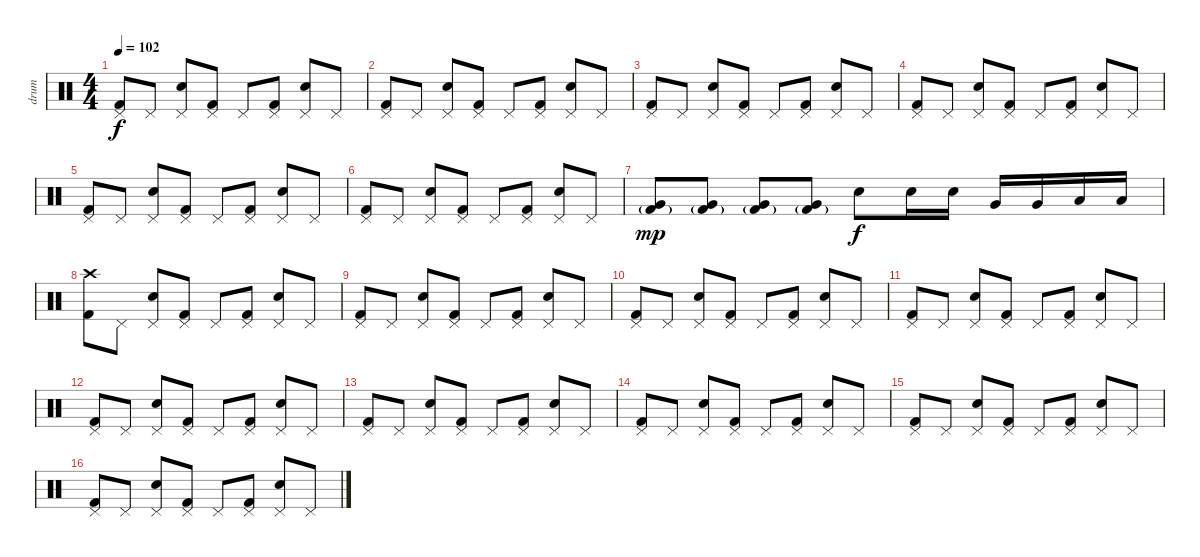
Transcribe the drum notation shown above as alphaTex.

\track ("drum " "drum ") {instrument percussion}
\staff {score}
\articulation defaults
\ts (4 4)
\tempo 102
\clef neutral
\ks c
("Pedal Hi-Hat (hit)" "Kick (hit) 2").8{dy f} "Pedal Hi-Hat (hit)".8 ("Pedal Hi-Hat (hit)" "Snare (hit) 2").8 ("Pedal Hi-Hat (hit)" "Kick (hit) 2").8 "Pedal Hi-Hat (hit)".8 ("Pedal Hi-Hat (hit)" "Kick (hit) 2").8 ("Pedal Hi-Hat (hit)" "Snare (hit) 2").8 "Pedal Hi-Hat (hit)".8 |
("Pedal Hi-Hat (hit)" "Kick (hit) 2").8 "Pedal Hi-Hat (hit)".8 ("Pedal Hi-Hat (hit)" "Snare (hit) 2").8 ("Pedal Hi-Hat (hit)" "Kick (hit) 2").8 "Pedal Hi-Hat (hit)".8 ("Pedal Hi-Hat (hit)" "Kick (hit) 2").8 ("Pedal Hi-Hat (hit)" "Snare (hit) 2").8 "Pedal Hi-Hat (hit)".8 |
("Pedal Hi-Hat (hit)" "Kick (hit) 2").8 "Pedal Hi-Hat (hit)".8 ("Pedal Hi-Hat (hit)" "Snare (hit) 2").8 ("Pedal Hi-Hat (hit)" "Kick (hit) 2").8 "Pedal Hi-Hat (hit)".8 ("Pedal Hi-Hat (hit)" "Kick (hit) 2").8 ("Pedal Hi-Hat (hit)" "Snare (hit) 2").8 "Pedal Hi-Hat (hit)".8 |
("Pedal Hi-Hat (hit)" "Kick (hit) 2").8 "Pedal Hi-Hat (hit)".8 ("Pedal Hi-Hat (hit)" "Snare (hit) 2").8 ("Pedal Hi-Hat (hit)" "Kick (hit) 2").8 "Pedal Hi-Hat (hit)".8 ("Pedal Hi-Hat (hit)" "Kick (hit) 2").8 ("Pedal Hi-Hat (hit)" "Snare (hit) 2").8 "Pedal Hi-Hat (hit)".8 |
("Pedal Hi-Hat (hit)" "Kick (hit) 2").8 "Pedal Hi-Hat (hit)".8 ("Pedal Hi-Hat (hit)" "Snare (hit) 2").8 ("Pedal Hi-Hat (hit)" "Kick (hit) 2").8 "Pedal Hi-Hat (hit)".8 ("Pedal Hi-Hat (hit)" "Kick (hit) 2").8 ("Pedal Hi-Hat (hit)" "Snare (hit) 2").8 "Pedal Hi-Hat (hit)".8 |
("Pedal Hi-Hat (hit)" "Kick (hit) 2").8 "Pedal Hi-Hat (hit)".8 ("Pedal Hi-Hat (hit)" "Snare (hit) 2").8 ("Pedal Hi-Hat (hit)" "Kick (hit) 2").8 "Pedal Hi-Hat (hit)".8 ("Pedal Hi-Hat (hit)" "Kick (hit) 2").8 ("Pedal Hi-Hat (hit)" "Snare (hit) 2").8 "Pedal Hi-Hat (hit)".8 |
("Very Low Tom (hit)" "Kick (hit) 2"{g}).8{dy mp volume 8} ("Very Low Tom (hit)" "Kick (hit) 2"{g}).8{volume 10} ("Very Low Tom (hit)" "Kick (hit) 2"{g}).8{volume 12} ("Very Low Tom (hit)" "Kick (hit) 2"{g}).8{volume 14} "Snare (hit) 2".8{dy f} "Snare (hit) 2".16 "Snare (hit) 2".16 "Very Low Tom (hit)".16 "Very Low Tom (hit)".16 "Low Floor Tom (hit)".16 "Low Floor Tom (hit)".16 |
("Crash high (hit)" "Kick (hit) 2").8 "Pedal Hi-Hat (hit)".8 ("Pedal Hi-Hat (hit)" "Snare (hit) 2").8 ("Pedal Hi-Hat (hit)" "Kick (hit) 2").8 "Pedal Hi-Hat (hit)".8 ("Pedal Hi-Hat (hit)" "Kick (hit) 2").8 ("Pedal Hi-Hat (hit)" "Snare (hit) 2").8 "Pedal Hi-Hat (hit)".8 |
("Pedal Hi-Hat (hit)" "Kick (hit) 2").8 "Pedal Hi-Hat (hit)".8 ("Pedal Hi-Hat (hit)" "Snare (hit) 2").8 ("Pedal Hi-Hat (hit)" "Kick (hit) 2").8 "Pedal Hi-Hat (hit)".8 ("Pedal Hi-Hat (hit)" "Kick (hit) 2").8 ("Pedal Hi-Hat (hit)" "Snare (hit) 2").8 "Pedal Hi-Hat (hit)".8 |
("Pedal Hi-Hat (hit)" "Kick (hit) 2").8 "Pedal Hi-Hat (hit)".8 ("Pedal Hi-Hat (hit)" "Snare (hit) 2").8 ("Pedal Hi-Hat (hit)" "Kick (hit) 2").8 "Pedal Hi-Hat (hit)".8 ("Pedal Hi-Hat (hit)" "Kick (hit) 2").8 ("Pedal Hi-Hat (hit)" "Snare (hit) 2").8 "Pedal Hi-Hat (hit)".8 |
("Pedal Hi-Hat (hit)" "Kick (hit) 2").8 "Pedal Hi-Hat (hit)".8 ("Pedal Hi-Hat (hit)" "Snare (hit) 2").8 ("Pedal Hi-Hat (hit)" "Kick (hit) 2").8 "Pedal Hi-Hat (hit)".8 ("Pedal Hi-Hat (hit)" "Kick (hit) 2").8 ("Pedal Hi-Hat (hit)" "Snare (hit) 2").8 "Pedal Hi-Hat (hit)".8 |
("Pedal Hi-Hat (hit)" "Kick (hit) 2").8{volume 11} "Pedal Hi-Hat (hit)".8 ("Pedal Hi-Hat (hit)" "Snare (hit) 2").8 ("Pedal Hi-Hat (hit)" "Kick (hit) 2").8 "Pedal Hi-Hat (hit)".8{volume 9} ("Pedal Hi-Hat (hit)" "Kick (hit) 2").8 ("Pedal Hi-Hat (hit)" "Snare (hit) 2").8 "Pedal Hi-Hat (hit)".8 |
("Pedal Hi-Hat (hit)" "Kick (hit) 2").8{volume 7} "Pedal Hi-Hat (hit)".8 ("Pedal Hi-Hat (hit)" "Snare (hit) 2").8 ("Pedal Hi-Hat (hit)" "Kick (hit) 2").8 "Pedal Hi-Hat (hit)".8{volume 5} ("Pedal Hi-Hat (hit)" "Kick (hit) 2").8 ("Pedal Hi-Hat (hit)" "Snare (hit) 2").8 "Pedal Hi-Hat (hit)".8 |
("Pedal Hi-Hat (hit)" "Kick (hit) 2").8 "Pedal Hi-Hat (hit)".8 ("Pedal Hi-Hat (hit)" "Snare (hit) 2").8 ("Pedal Hi-Hat (hit)" "Kick (hit) 2").8 "Pedal Hi-Hat (hit)".8 ("Pedal Hi-Hat (hit)" "Kick (hit) 2").8 ("Pedal Hi-Hat (hit)" "Snare (hit) 2").8 "Pedal Hi-Hat (hit)".8 |
("Pedal Hi-Hat (hit)" "Kick (hit) 2").8 "Pedal Hi-Hat (hit)".8 ("Pedal Hi-Hat (hit)" "Snare (hit) 2").8 ("Pedal Hi-Hat (hit)" "Kick (hit) 2").8 "Pedal Hi-Hat (hit)".8 ("Pedal Hi-Hat (hit)" "Kick (hit) 2").8 ("Pedal Hi-Hat (hit)" "Snare (hit) 2").8 "Pedal Hi-Hat (hit)".8 |
("Pedal Hi-Hat (hit)" "Kick (hit) 2").8{volume 2} "Pedal Hi-Hat (hit)".8 ("Pedal Hi-Hat (hit)" "Snare (hit) 2").8 ("Pedal Hi-Hat (hit)" "Kick (hit) 2").8 "Pedal Hi-Hat (hit)".8 ("Pedal Hi-Hat (hit)" "Kick (hit) 2").8{volume 0} ("Pedal Hi-Hat (hit)" "Snare (hit) 2").8 "Pedal Hi-Hat (hit)".8
